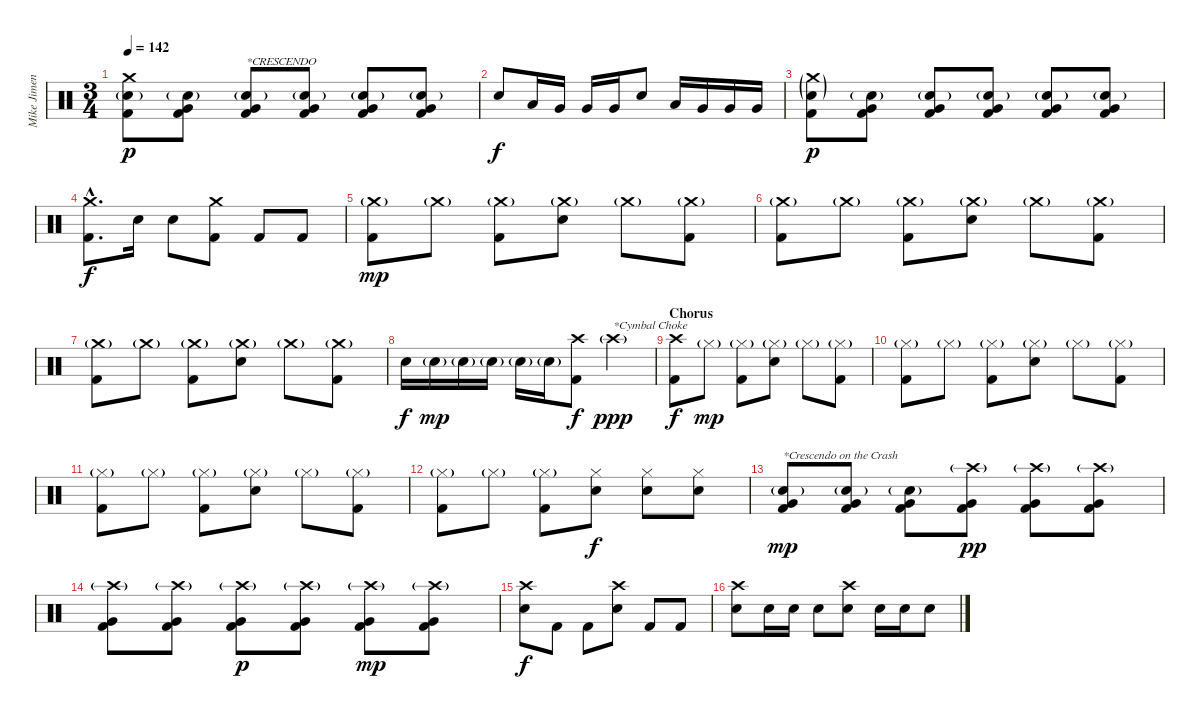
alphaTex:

\track ("Mike Jimenez" "Mike Jimen") {instrument percussion}
\staff {score}
\articulation defaults
\ts (3 4)
\tempo 142
\clef neutral
\ks c
("Crash medium (hit)" "Electric Snare (hit)"{g} "Kick (hit) 2").8{dy p volume 11} ("Electric Snare (hit)"{g} "Very Low Tom (hit)" "Kick (hit) 2").8 ("Electric Snare (hit)"{g} "Very Low Tom (hit)" "Kick (hit) 2").8{txt "*CRESCENDO" volume 16} ("Electric Snare (hit)"{g} "Very Low Tom (hit)" "Kick (hit) 2").8 ("Electric Snare (hit)"{g} "Very Low Tom (hit)" "Kick (hit) 2").8 ("Electric Snare (hit)"{g} "Very Low Tom (hit)" "Kick (hit) 2").8 |
"Electric Snare (hit)".8{dy f} "Low Tom (hit)".16 "Very Low Tom (hit)".16 "Very Low Tom (hit)".16 "Very Low Tom (hit)".16 "Electric Snare (hit)".8 "Low Tom (hit)".16 "Very Low Tom (hit)".16 "Very Low Tom (hit)".16 "Very Low Tom (hit)".16 |
("Crash medium (hit)"{g} "Electric Snare (hit)"{g} "Kick (hit) 2").8{dy p} ("Electric Snare (hit)"{g} "Very Low Tom (hit)" "Kick (hit) 2").8 ("Electric Snare (hit)"{g} "Very Low Tom (hit)" "Kick (hit) 2").8 ("Electric Snare (hit)"{g} "Very Low Tom (hit)" "Kick (hit) 2").8 ("Electric Snare (hit)"{g} "Very Low Tom (hit)" "Kick (hit) 2").8 ("Electric Snare (hit)"{g} "Very Low Tom (hit)" "Kick (hit) 2").8 |
("Crash medium (hit)"{hac} "Kick (hit) 2"{hac}).8{d dy f} "Electric Snare (hit)".16 "Electric Snare (hit)".8 ("Crash medium (hit)" "Kick (hit) 2").8 "Kick (hit) 2".8 "Kick (hit) 2".8 |
("Crash medium (hit)"{g} "Kick (hit) 2").8{dy mp} "Crash medium (hit)"{g}.8 ("Crash medium (hit)"{g} "Kick (hit) 2").8 ("Crash medium (hit)"{g} "Electric Snare (hit)").8 "Crash medium (hit)"{g}.8 ("Crash medium (hit)"{g} "Kick (hit) 2").8 |
("Crash medium (hit)"{g} "Kick (hit) 2").8 "Crash medium (hit)"{g}.8 ("Crash medium (hit)"{g} "Kick (hit) 2").8 ("Crash medium (hit)"{g} "Electric Snare (hit)").8 "Crash medium (hit)"{g}.8 ("Crash medium (hit)"{g} "Kick (hit) 2").8 |
("Crash medium (hit)"{g} "Kick (hit) 2").8 "Crash medium (hit)"{g}.8 ("Crash medium (hit)"{g} "Kick (hit) 2").8 ("Crash medium (hit)"{g} "Electric Snare (hit)").8 "Crash medium (hit)"{g}.8 ("Crash medium (hit)"{g} "Kick (hit) 2").8 |
"Electric Snare (hit)".16{dy f} "Electric Snare (hit)"{g}.16{dy mp} "Electric Snare (hit)"{g}.16 "Electric Snare (hit)"{g}.16 "Electric Snare (hit)"{g}.16 "Electric Snare (hit)"{g}.16 ("Crash high (hit)" "Kick (hit) 2").8{dy f} "Crash high (hit)"{g}.4{txt "*Cymbal Choke" dy ppp} |
\section ("" "Chorus")
("Crash high (hit)" "Kick (hit) 2").8{dy f} "Hi-Hat (closed)"{g}.8{dy mp} ("Hi-Hat (closed)"{g} "Kick (hit) 2").8 ("Hi-Hat (closed)"{g} "Electric Snare (hit)").8 "Hi-Hat (closed)"{g}.8 ("Hi-Hat (closed)"{g} "Kick (hit) 2").8 |
("Hi-Hat (closed)"{g} "Kick (hit) 2").8 "Hi-Hat (closed)"{g}.8 ("Hi-Hat (closed)"{g} "Kick (hit) 2").8 ("Hi-Hat (closed)"{g} "Electric Snare (hit)").8 "Hi-Hat (closed)"{g}.8 ("Hi-Hat (closed)"{g} "Kick (hit) 2").8 |
("Hi-Hat (closed)"{g} "Kick (hit) 2").8 "Hi-Hat (closed)"{g}.8 ("Hi-Hat (closed)"{g} "Kick (hit) 2").8 ("Hi-Hat (closed)"{g} "Electric Snare (hit)").8 "Hi-Hat (closed)"{g}.8 ("Hi-Hat (closed)"{g} "Kick (hit) 2").8 |
("Hi-Hat (closed)"{g} "Kick (hit) 2").8 "Hi-Hat (closed)"{g}.8 ("Hi-Hat (closed)"{g} "Kick (hit) 2").8 ("Hi-Hat (closed)" "Electric Snare (hit)").8{dy f} ("Hi-Hat (closed)" "Electric Snare (hit)").8 ("Hi-Hat (closed)" "Electric Snare (hit)").8 |
("Electric Snare (hit)"{g} "Very Low Tom (hit)" "Kick (hit) 2").8{txt "*Crescendo on the Crash" dy mp} ("Electric Snare (hit)"{g} "Very Low Tom (hit)" "Kick (hit) 2").8 ("Electric Snare (hit)"{g} "Very Low Tom (hit)" "Kick (hit) 2").8 ("Crash high (hit)"{g} "Very Low Tom (hit)" "Kick (hit) 2").8{dy pp} ("Crash high (hit)"{g} "Very Low Tom (hit)" "Kick (hit) 2").8 ("Crash high (hit)"{g} "Very Low Tom (hit)" "Kick (hit) 2").8 |
("Crash high (hit)"{g} "Very Low Tom (hit)" "Kick (hit) 2").8 ("Crash high (hit)"{g} "Very Low Tom (hit)" "Kick (hit) 2").8 ("Crash high (hit)"{g} "Very Low Tom (hit)" "Kick (hit) 2").8{dy p} ("Crash high (hit)"{g} "Very Low Tom (hit)" "Kick (hit) 2").8 ("Crash high (hit)"{g} "Very Low Tom (hit)" "Kick (hit) 2").8{dy mp} ("Crash high (hit)"{g} "Very Low Tom (hit)" "Kick (hit) 2").8 |
("Crash high (hit)" "Electric Snare (hit)").8{dy f} "Kick (hit) 2".8 "Kick (hit) 2".8 ("Crash high (hit)" "Electric Snare (hit)").8 "Kick (hit) 2".8 "Kick (hit) 2".8 |
("Crash high (hit)" "Electric Snare (hit)").8 "Electric Snare (hit)".16 "Electric Snare (hit)".16 "Electric Snare (hit)".8 ("Crash high (hit)" "Electric Snare (hit)").8 "Electric Snare (hit)".16 "Electric Snare (hit)".16 "Electric Snare (hit)".8
